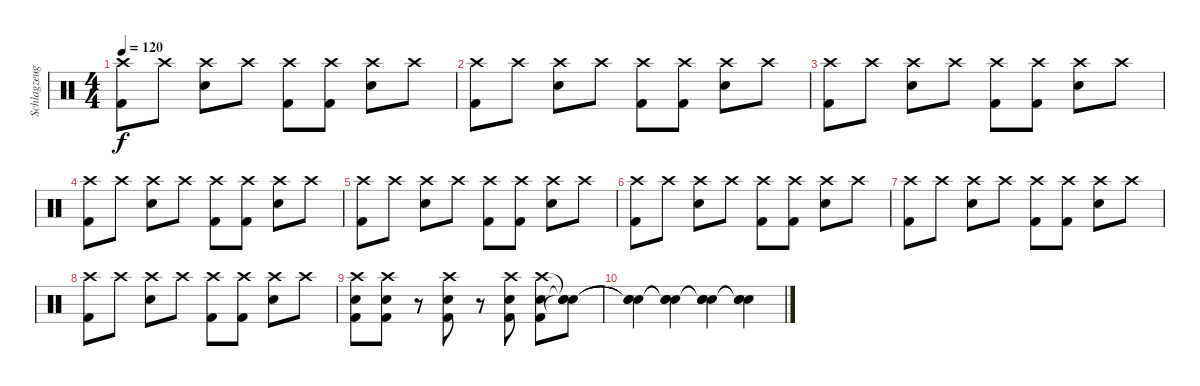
\track ("Schlagzeug" "Schlagzeug") {instrument percussion}
\staff {score}
\articulation defaults
\ts (4 4)
\tempo 120
\clef neutral
\ks c
("Crash high (hit)" "Kick (hit) 2").8{dy f} "Crash high (hit)".8 ("Snare (hit) 2" "Crash high (hit)").8 "Crash high (hit)".8 ("Kick (hit) 2" "Crash high (hit)").8 ("Crash high (hit)" "Kick (hit) 2").8 ("Snare (hit) 2" "Crash high (hit)").8 "Crash high (hit)".8 |
("Crash high (hit)" "Kick (hit) 2").8 "Crash high (hit)".8 ("Snare (hit) 2" "Crash high (hit)").8 "Crash high (hit)".8 ("Kick (hit) 2" "Crash high (hit)").8 ("Crash high (hit)" "Kick (hit) 2").8 ("Snare (hit) 2" "Crash high (hit)").8 "Crash high (hit)".8 |
("Crash high (hit)" "Kick (hit) 2").8 "Crash high (hit)".8 ("Snare (hit) 2" "Crash high (hit)").8 "Crash high (hit)".8 ("Kick (hit) 2" "Crash high (hit)").8 ("Crash high (hit)" "Kick (hit) 2").8 ("Snare (hit) 2" "Crash high (hit)").8 "Crash high (hit)".8 |
("Crash high (hit)" "Kick (hit) 2").8 "Crash high (hit)".8 ("Snare (hit) 2" "Crash high (hit)").8 "Crash high (hit)".8 ("Kick (hit) 2" "Crash high (hit)").8 ("Crash high (hit)" "Kick (hit) 2").8 ("Snare (hit) 2" "Crash high (hit)").8 "Crash high (hit)".8 |
("Crash high (hit)" "Kick (hit) 2").8 "Crash high (hit)".8 ("Snare (hit) 2" "Crash high (hit)").8 "Crash high (hit)".8 ("Kick (hit) 2" "Crash high (hit)").8 ("Crash high (hit)" "Kick (hit) 2").8 ("Snare (hit) 2" "Crash high (hit)").8 "Crash high (hit)".8 |
("Crash high (hit)" "Kick (hit) 2").8 "Crash high (hit)".8 ("Snare (hit) 2" "Crash high (hit)").8 "Crash high (hit)".8 ("Kick (hit) 2" "Crash high (hit)").8 ("Crash high (hit)" "Kick (hit) 2").8 ("Snare (hit) 2" "Crash high (hit)").8 "Crash high (hit)".8 |
("Crash high (hit)" "Kick (hit) 2").8 "Crash high (hit)".8 ("Snare (hit) 2" "Crash high (hit)").8 "Crash high (hit)".8 ("Kick (hit) 2" "Crash high (hit)").8 ("Crash high (hit)" "Kick (hit) 2").8 ("Snare (hit) 2" "Crash high (hit)").8 "Crash high (hit)".8 |
("Crash high (hit)" "Kick (hit) 2").8 "Crash high (hit)".8 ("Snare (hit) 2" "Crash high (hit)").8 "Crash high (hit)".8 ("Kick (hit) 2" "Crash high (hit)").8 ("Crash high (hit)" "Kick (hit) 2").8 ("Snare (hit) 2" "Crash high (hit)").8 "Crash high (hit)".8 |
("Kick (hit) 2" "Snare (hit) 2" "Crash high (hit)").8 ("Kick (hit) 2" "Snare (hit) 2" "Crash high (hit)").8 r.8 ("Kick (hit) 2" "Snare (hit) 2" "Crash high (hit)").8 r.8 ("Kick (hit) 2" "Snare (hit) 2" "Crash high (hit)").8 ("Kick (hit) 2" "Snare (hit) 2" "Crash high (hit)").8 ("Snare (hit)"{t} "Snare (hit)"{t} "Snare (hit)"{t}).8 |
("Snare (hit)"{t} "Snare (hit)"{t} "Snare (hit)"{t}).4 ("Snare (hit)"{t} "Snare (hit)"{t} "Snare (hit)"{t}).4 ("Snare (hit)"{t} "Snare (hit)"{t} "Snare (hit)"{t}).4 ("Snare (hit)"{t} "Snare (hit)"{t} "Snare (hit)"{t}).4
